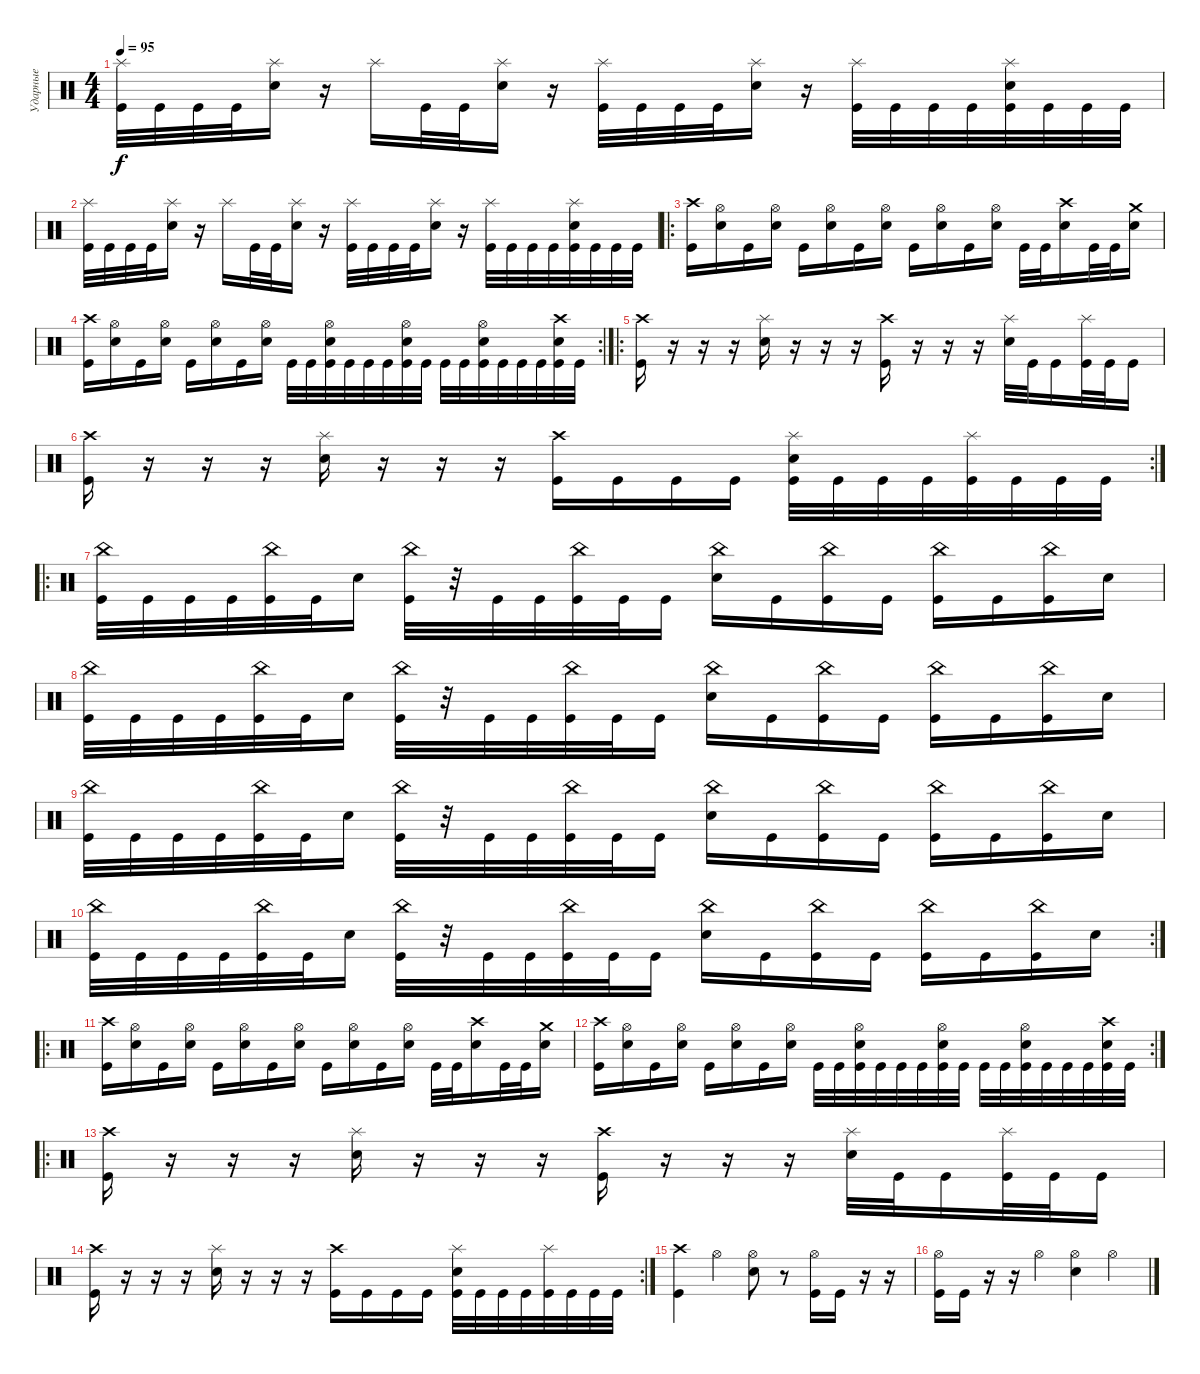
\track ("Ударные" "Ударные") {instrument percussion}
\staff {score}
\articulation defaults
\ts (4 4)
\tempo 95
\clef neutral
\ks c
("Kick (hit)" "Splash (hit)").32{dy f} "Kick (hit)".32 "Kick (hit)".32 "Kick (hit)".32 ("Electric Snare (hit)" "Splash (hit)").16 r.16 "Splash (hit)".16 "Kick (hit)".32 "Kick (hit)".32 ("Electric Snare (hit)" "Splash (hit)").16 r.16 ("Kick (hit)" "Splash (hit)").32 "Kick (hit)".32 "Kick (hit)".32 "Kick (hit)".32 ("Electric Snare (hit)" "Splash (hit)").16 r.16 ("Kick (hit)" "Splash (hit)").32 "Kick (hit)".32 "Kick (hit)".32 "Kick (hit)".32 ("Kick (hit)" "Electric Snare (hit)" "Splash (hit)").32 "Kick (hit)".32 "Kick (hit)".32 "Kick (hit)".32 |
("Kick (hit)" "Splash (hit)").32 "Kick (hit)".32 "Kick (hit)".32 "Kick (hit)".32 ("Electric Snare (hit)" "Splash (hit)").16 r.16 "Splash (hit)".16 "Kick (hit)".32 "Kick (hit)".32 ("Electric Snare (hit)" "Splash (hit)").16 r.16 ("Kick (hit)" "Splash (hit)").32 "Kick (hit)".32 "Kick (hit)".32 "Kick (hit)".32 ("Electric Snare (hit)" "Splash (hit)").16 r.16 ("Kick (hit)" "Splash (hit)").32 "Kick (hit)".32 "Kick (hit)".32 "Kick (hit)".32 ("Kick (hit)" "Electric Snare (hit)" "Splash (hit)").32 "Kick (hit)".32 "Kick (hit)".32 "Kick (hit)".32 |
\ro
("Crash high (hit)" "Kick (hit)").16 ("Hi-Hat (open)" "Electric Snare (hit)").16 "Kick (hit)".16 ("Hi-Hat (open)" "Electric Snare (hit)").16 "Kick (hit)".16 ("Hi-Hat (open)" "Electric Snare (hit)").16 "Kick (hit)".16 ("Hi-Hat (open)" "Electric Snare (hit)").16 "Kick (hit)".16 ("Hi-Hat (open)" "Electric Snare (hit)").16 "Kick (hit)".16 ("Hi-Hat (open)" "Electric Snare (hit)").16 "Kick (hit)".32 "Kick (hit)".32 ("Crash high (hit)" "Electric Snare (hit)").16 "Kick (hit)".32 "Kick (hit)".32 ("Crash medium (hit)" "Electric Snare (hit)").16 |
\rc 2
("Crash high (hit)" "Kick (hit)").16 ("Hi-Hat (open)" "Electric Snare (hit)").16 "Kick (hit)".16 ("Hi-Hat (open)" "Electric Snare (hit)").16 "Kick (hit)".16 ("Hi-Hat (open)" "Electric Snare (hit)").16 "Kick (hit)".16 ("Hi-Hat (open)" "Electric Snare (hit)").16 "Kick (hit)".32 "Kick (hit)".32 ("Hi-Hat (open)" "Electric Snare (hit)" "Kick (hit)").32 "Kick (hit)".32 "Kick (hit)".32 "Kick (hit)".32 ("Hi-Hat (open)" "Electric Snare (hit)" "Kick (hit)").32 "Kick (hit)".32 "Kick (hit)".32 "Kick (hit)".32 ("Hi-Hat (open)" "Electric Snare (hit)" "Kick (hit)").32 "Kick (hit)".32 "Kick (hit)".32 "Kick (hit)".32 ("Crash high (hit)" "Electric Snare (hit)" "Kick (hit)").32 "Kick (hit)".32 |
\ro
("Crash high (hit)" "Kick (hit)").16 r.16 r.16 r.16 ("Splash (hit)" "Electric Snare (hit)").16 r.16 r.16 r.16 ("Crash high (hit)" "Kick (hit)").16 r.16 r.16 r.16 ("Splash (hit)" "Electric Snare (hit)").32 "Kick (hit)".32 "Kick (hit)".16 ("Splash (hit)" "Kick (hit)").32 "Kick (hit)".32 "Kick (hit)".16 |
\rc 2
("Crash high (hit)" "Kick (hit)").16 r.16 r.16 r.16 ("Splash (hit)" "Electric Snare (hit)").16 r.16 r.16 r.16 ("Crash high (hit)" "Kick (hit)").16 "Kick (hit)".16 "Kick (hit)".16 "Kick (hit)".16 ("Splash (hit)" "Electric Snare (hit)" "Kick (hit)").32 "Kick (hit)".32 "Kick (hit)".32 "Kick (hit)".32 ("Splash (hit)" "Kick (hit)").32 "Kick (hit)".32 "Kick (hit)".32 "Kick (hit)".32 |
\ro
("China (hit)" "Kick (hit)").32 "Kick (hit)".32 "Kick (hit)".32 "Kick (hit)".32 ("China (hit)" "Kick (hit)").32 "Kick (hit)".32 "Electric Snare (hit)".16 ("China (hit)" "Kick (hit)").32 r.32 "Kick (hit)".32 "Kick (hit)".32 ("China (hit)" "Kick (hit)").32 "Kick (hit)".32 "Kick (hit)".16 ("China (hit)" "Electric Snare (hit)").16 "Kick (hit)".16 ("China (hit)" "Kick (hit)").16 "Kick (hit)".16 ("China (hit)" "Kick (hit)").16 "Kick (hit)".16 ("China (hit)" "Kick (hit)").16 "Electric Snare (hit)".16 |
("China (hit)" "Kick (hit)").32 "Kick (hit)".32 "Kick (hit)".32 "Kick (hit)".32 ("China (hit)" "Kick (hit)").32 "Kick (hit)".32 "Electric Snare (hit)".16 ("China (hit)" "Kick (hit)").32 r.32 "Kick (hit)".32 "Kick (hit)".32 ("China (hit)" "Kick (hit)").32 "Kick (hit)".32 "Kick (hit)".16 ("China (hit)" "Electric Snare (hit)").16 "Kick (hit)".16 ("China (hit)" "Kick (hit)").16 "Kick (hit)".16 ("China (hit)" "Kick (hit)").16 "Kick (hit)".16 ("China (hit)" "Kick (hit)").16 "Electric Snare (hit)".16 |
("China (hit)" "Kick (hit)").32 "Kick (hit)".32 "Kick (hit)".32 "Kick (hit)".32 ("China (hit)" "Kick (hit)").32 "Kick (hit)".32 "Electric Snare (hit)".16 ("China (hit)" "Kick (hit)").32 r.32 "Kick (hit)".32 "Kick (hit)".32 ("China (hit)" "Kick (hit)").32 "Kick (hit)".32 "Kick (hit)".16 ("China (hit)" "Electric Snare (hit)").16 "Kick (hit)".16 ("China (hit)" "Kick (hit)").16 "Kick (hit)".16 ("China (hit)" "Kick (hit)").16 "Kick (hit)".16 ("China (hit)" "Kick (hit)").16 "Electric Snare (hit)".16 |
\rc 2
("China (hit)" "Kick (hit)").32 "Kick (hit)".32 "Kick (hit)".32 "Kick (hit)".32 ("China (hit)" "Kick (hit)").32 "Kick (hit)".32 "Electric Snare (hit)".16 ("China (hit)" "Kick (hit)").32 r.32 "Kick (hit)".32 "Kick (hit)".32 ("China (hit)" "Kick (hit)").32 "Kick (hit)".32 "Kick (hit)".16 ("China (hit)" "Electric Snare (hit)").16 "Kick (hit)".16 ("China (hit)" "Kick (hit)").16 "Kick (hit)".16 ("China (hit)" "Kick (hit)").16 "Kick (hit)".16 ("China (hit)" "Kick (hit)").16 "Electric Snare (hit)".16 |
\ro
("Crash high (hit)" "Kick (hit)").16 ("Hi-Hat (open)" "Electric Snare (hit)").16 "Kick (hit)".16 ("Hi-Hat (open)" "Electric Snare (hit)").16 "Kick (hit)".16 ("Hi-Hat (open)" "Electric Snare (hit)").16 "Kick (hit)".16 ("Hi-Hat (open)" "Electric Snare (hit)").16 "Kick (hit)".16 ("Hi-Hat (open)" "Electric Snare (hit)").16 "Kick (hit)".16 ("Hi-Hat (open)" "Electric Snare (hit)").16 "Kick (hit)".32 "Kick (hit)".32 ("Crash high (hit)" "Electric Snare (hit)").16 "Kick (hit)".32 "Kick (hit)".32 ("Crash medium (hit)" "Electric Snare (hit)").16 |
\rc 2
("Crash high (hit)" "Kick (hit)").16 ("Hi-Hat (open)" "Electric Snare (hit)").16 "Kick (hit)".16 ("Hi-Hat (open)" "Electric Snare (hit)").16 "Kick (hit)".16 ("Hi-Hat (open)" "Electric Snare (hit)").16 "Kick (hit)".16 ("Hi-Hat (open)" "Electric Snare (hit)").16 "Kick (hit)".32 "Kick (hit)".32 ("Hi-Hat (open)" "Electric Snare (hit)" "Kick (hit)").32 "Kick (hit)".32 "Kick (hit)".32 "Kick (hit)".32 ("Hi-Hat (open)" "Electric Snare (hit)" "Kick (hit)").32 "Kick (hit)".32 "Kick (hit)".32 "Kick (hit)".32 ("Hi-Hat (open)" "Electric Snare (hit)" "Kick (hit)").32 "Kick (hit)".32 "Kick (hit)".32 "Kick (hit)".32 ("Crash high (hit)" "Electric Snare (hit)" "Kick (hit)").32 "Kick (hit)".32 |
\ro
("Crash high (hit)" "Kick (hit)").16 r.16 r.16 r.16 ("Splash (hit)" "Electric Snare (hit)").16 r.16 r.16 r.16 ("Crash high (hit)" "Kick (hit)").16 r.16 r.16 r.16 ("Splash (hit)" "Electric Snare (hit)").32 "Kick (hit)".32 "Kick (hit)".16 ("Splash (hit)" "Kick (hit)").32 "Kick (hit)".32 "Kick (hit)".16 |
\rc 2
("Crash high (hit)" "Kick (hit)").16 r.16 r.16 r.16 ("Splash (hit)" "Electric Snare (hit)").16 r.16 r.16 r.16 ("Crash high (hit)" "Kick (hit)").16 "Kick (hit)".16 "Kick (hit)".16 "Kick (hit)".16 ("Splash (hit)" "Electric Snare (hit)" "Kick (hit)").32 "Kick (hit)".32 "Kick (hit)".32 "Kick (hit)".32 ("Splash (hit)" "Kick (hit)").32 "Kick (hit)".32 "Kick (hit)".32 "Kick (hit)".32 |
("Crash high (hit)" "Kick (hit)").4 "Hi-Hat (open)".4 ("Hi-Hat (open)" "Electric Snare (hit)").8 r.8 ("Hi-Hat (open)" "Kick (hit)").16 "Kick (hit)".16 r.16 r.16 |
("Hi-Hat (open)" "Kick (hit)").16 "Kick (hit)".16 r.16 r.16 "Hi-Hat (open)".4 ("Hi-Hat (open)" "Electric Snare (hit)").4 "Hi-Hat (open)".4
